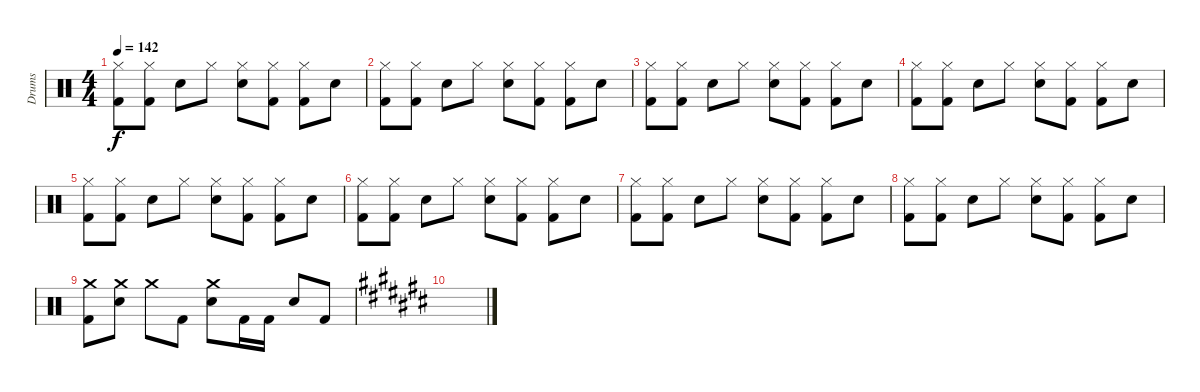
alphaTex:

\track ("Drums" "Drums") {instrument percussion}
\staff {score}
\articulation defaults
\ts (4 4)
\tempo 142
\clef neutral
\ks c
("Hi-Hat (closed)" "Kick (hit) 2").8{dy f} ("Hi-Hat (closed)" "Kick (hit) 2").8 "Electric Snare (hit)".8 "Hi-Hat (closed)".8 ("Hi-Hat (closed)" "Electric Snare (hit)").8 ("Hi-Hat (closed)" "Kick (hit) 2").8 ("Hi-Hat (closed)" "Kick (hit) 2").8 "Electric Snare (hit)".8 |
("Hi-Hat (closed)" "Kick (hit) 2").8 ("Hi-Hat (closed)" "Kick (hit) 2").8 "Electric Snare (hit)".8 "Hi-Hat (closed)".8 ("Hi-Hat (closed)" "Electric Snare (hit)").8 ("Hi-Hat (closed)" "Kick (hit) 2").8 ("Hi-Hat (closed)" "Kick (hit) 2").8 "Electric Snare (hit)".8 |
("Hi-Hat (closed)" "Kick (hit) 2").8 ("Hi-Hat (closed)" "Kick (hit) 2").8 "Electric Snare (hit)".8 "Hi-Hat (closed)".8 ("Hi-Hat (closed)" "Electric Snare (hit)").8 ("Hi-Hat (closed)" "Kick (hit) 2").8 ("Hi-Hat (closed)" "Kick (hit) 2").8 "Electric Snare (hit)".8 |
("Hi-Hat (closed)" "Kick (hit) 2").8 ("Hi-Hat (closed)" "Kick (hit) 2").8 "Electric Snare (hit)".8 "Hi-Hat (closed)".8 ("Hi-Hat (closed)" "Electric Snare (hit)").8 ("Hi-Hat (closed)" "Kick (hit) 2").8 ("Hi-Hat (closed)" "Kick (hit) 2").8 "Electric Snare (hit)".8 |
("Hi-Hat (closed)" "Kick (hit) 2").8 ("Hi-Hat (closed)" "Kick (hit) 2").8 "Electric Snare (hit)".8 "Hi-Hat (closed)".8 ("Hi-Hat (closed)" "Electric Snare (hit)").8 ("Hi-Hat (closed)" "Kick (hit) 2").8 ("Hi-Hat (closed)" "Kick (hit) 2").8 "Electric Snare (hit)".8 |
("Hi-Hat (closed)" "Kick (hit) 2").8 ("Hi-Hat (closed)" "Kick (hit) 2").8 "Electric Snare (hit)".8 "Hi-Hat (closed)".8 ("Hi-Hat (closed)" "Electric Snare (hit)").8 ("Hi-Hat (closed)" "Kick (hit) 2").8 ("Hi-Hat (closed)" "Kick (hit) 2").8 "Electric Snare (hit)".8 |
("Hi-Hat (closed)" "Kick (hit) 2").8 ("Hi-Hat (closed)" "Kick (hit) 2").8 "Electric Snare (hit)".8 "Hi-Hat (closed)".8 ("Hi-Hat (closed)" "Electric Snare (hit)").8 ("Hi-Hat (closed)" "Kick (hit) 2").8 ("Hi-Hat (closed)" "Kick (hit) 2").8 "Electric Snare (hit)".8 |
("Hi-Hat (closed)" "Kick (hit) 2").8 ("Hi-Hat (closed)" "Kick (hit) 2").8 "Electric Snare (hit)".8 "Hi-Hat (closed)".8 ("Hi-Hat (closed)" "Electric Snare (hit)").8 ("Hi-Hat (closed)" "Kick (hit) 2").8 ("Hi-Hat (closed)" "Kick (hit) 2").8 "Electric Snare (hit)".8 |
("Crash medium (hit)" "Kick (hit) 2").8 ("Crash medium (hit)" "Electric Snare (hit)").8 "Crash medium (hit)".8 "Kick (hit) 2".8 ("Crash medium (hit)" "Electric Snare (hit)").8 "Kick (hit) 2".16 "Kick (hit) 2".16 "Electric Snare (hit)".8 "Kick (hit) 2".8 |
\ks a#minor
